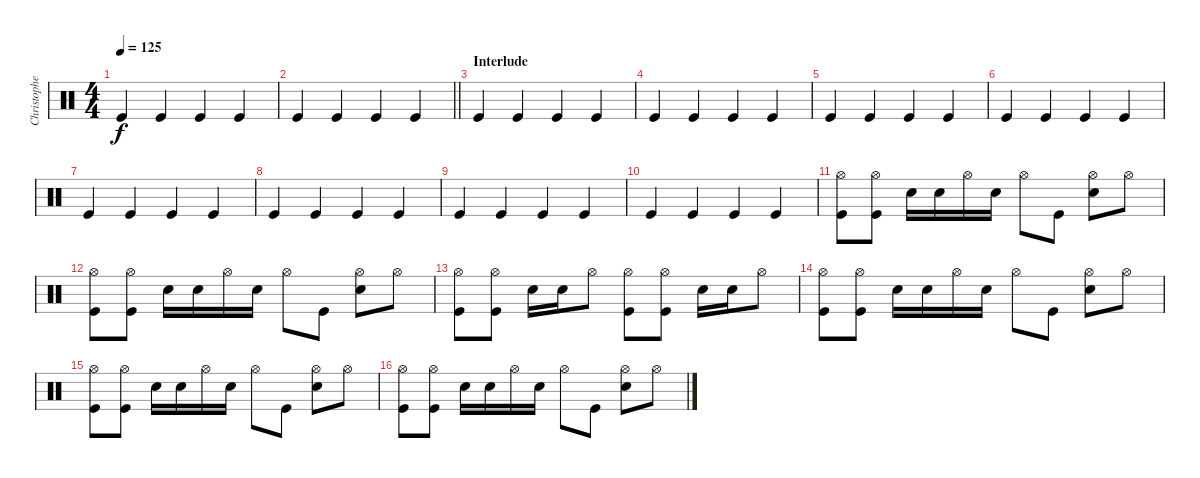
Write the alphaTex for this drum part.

\track ("Christopher - Drums" "Christophe") {instrument percussion}
\staff {score}
\articulation defaults
\ts (4 4)
\tempo 125
\clef neutral
\ks c "Kick (hit)".4{dy f} "Kick (hit)".4 "Kick (hit)".4 "Kick (hit)".4
|
\barLineRight lightlight "Kick (hit)".4 "Kick (hit)".4 "Kick (hit)".4 "Kick (hit)".4
|
\section ("" "Interlude")
"Kick (hit)".4 "Kick (hit)".4 "Kick (hit)".4 "Kick (hit)".4 |
"Kick (hit)".4 "Kick (hit)".4 "Kick (hit)".4 "Kick (hit)".4 |
"Kick (hit)".4 "Kick (hit)".4 "Kick (hit)".4 "Kick (hit)".4 |
"Kick (hit)".4 "Kick (hit)".4 "Kick (hit)".4 "Kick (hit)".4 |
"Kick (hit)".4 "Kick (hit)".4 "Kick (hit)".4 "Kick (hit)".4 |
"Kick (hit)".4 "Kick (hit)".4 "Kick (hit)".4 "Kick (hit)".4 |
"Kick (hit)".4 "Kick (hit)".4 "Kick (hit)".4 "Kick (hit)".4 |
"Kick (hit)".4 "Kick (hit)".4 "Kick (hit)".4 "Kick (hit)".4 |
("Hi-Hat (open)" "Kick (hit)").8 ("Hi-Hat (open)" "Kick (hit)").8 "Electric Snare (hit)".16 "Electric Snare (hit)".16 "Hi-Hat (open)".16 "Electric Snare (hit)".16 "Hi-Hat (open)".8 "Kick (hit)".8 ("Hi-Hat (open)" "Electric Snare (hit)").8 "Hi-Hat (open)".8 |
("Hi-Hat (open)" "Kick (hit)").8 ("Hi-Hat (open)" "Kick (hit)").8 "Electric Snare (hit)".16 "Electric Snare (hit)".16 "Hi-Hat (open)".16 "Electric Snare (hit)".16 "Hi-Hat (open)".8 "Kick (hit)".8 ("Hi-Hat (open)" "Electric Snare (hit)").8 "Hi-Hat (open)".8 |
("Hi-Hat (open)" "Kick (hit)").8 ("Hi-Hat (open)" "Kick (hit)").8 "Electric Snare (hit)".16 "Electric Snare (hit)".16 "Hi-Hat (open)".8 ("Hi-Hat (open)" "Kick (hit)").8 ("Hi-Hat (open)" "Kick (hit)").8 "Electric Snare (hit)".16 "Electric Snare (hit)".16 "Hi-Hat (open)".8 |
("Hi-Hat (open)" "Kick (hit)").8 ("Hi-Hat (open)" "Kick (hit)").8 "Electric Snare (hit)".16 "Electric Snare (hit)".16 "Hi-Hat (open)".16 "Electric Snare (hit)".16 "Hi-Hat (open)".8 "Kick (hit)".8 ("Hi-Hat (open)" "Electric Snare (hit)").8 "Hi-Hat (open)".8 |
("Hi-Hat (open)" "Kick (hit)").8 ("Hi-Hat (open)" "Kick (hit)").8 "Electric Snare (hit)".16 "Electric Snare (hit)".16 "Hi-Hat (open)".16 "Electric Snare (hit)".16 "Hi-Hat (open)".8 "Kick (hit)".8 ("Hi-Hat (open)" "Electric Snare (hit)").8 "Hi-Hat (open)".8 |
("Hi-Hat (open)" "Kick (hit)").8 ("Hi-Hat (open)" "Kick (hit)").8 "Electric Snare (hit)".16 "Electric Snare (hit)".16 "Hi-Hat (open)".16 "Electric Snare (hit)".16 "Hi-Hat (open)".8 "Kick (hit)".8 ("Hi-Hat (open)" "Electric Snare (hit)").8 "Hi-Hat (open)".8
